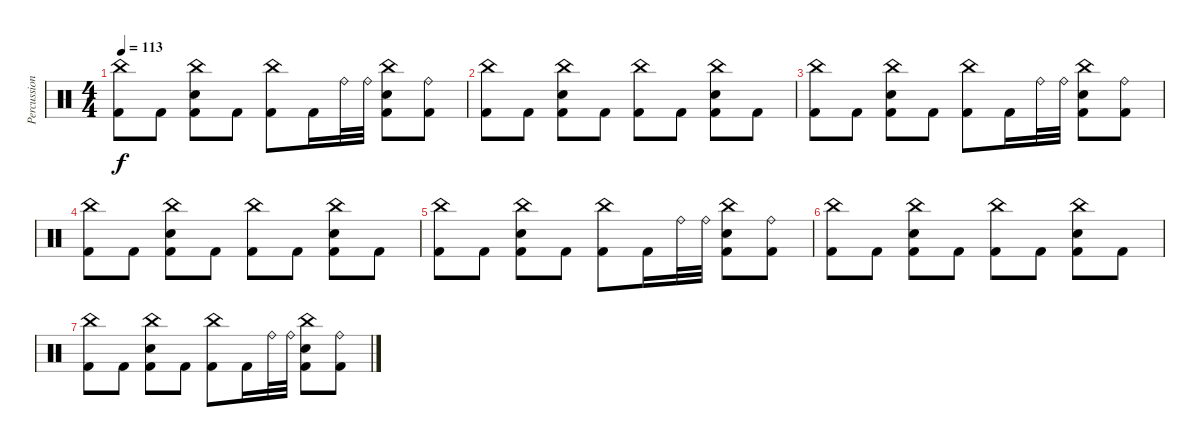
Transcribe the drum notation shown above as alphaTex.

\track ("Percussion" "Percussion") {instrument percussion}
\staff {score}
\articulation defaults
\ts (4 4)
\tempo 113
\clef neutral
\ks c
("China (hit)" "Kick (hit) 2").8{dy f} "Kick (hit) 2".8 ("China (hit)" "Electric Snare (hit)" "Kick (hit) 2").8 "Kick (hit) 2".8 ("China (hit)" "Kick (hit) 2").8 "Kick (hit) 2".16 "Ride (bell)".32 "Ride (bell)".32 ("China (hit)" "Electric Snare (hit)" "Kick (hit) 2").8 ("Ride (bell)" "Kick (hit) 2").8 |
("China (hit)" "Kick (hit) 2").8 "Kick (hit) 2".8 ("China (hit)" "Electric Snare (hit)" "Kick (hit) 2").8 "Kick (hit) 2".8 ("China (hit)" "Kick (hit) 2").8 "Kick (hit) 2".8 ("China (hit)" "Electric Snare (hit)" "Kick (hit) 2").8 "Kick (hit) 2".8 |
("China (hit)" "Kick (hit) 2").8 "Kick (hit) 2".8 ("China (hit)" "Electric Snare (hit)" "Kick (hit) 2").8 "Kick (hit) 2".8 ("China (hit)" "Kick (hit) 2").8 "Kick (hit) 2".16 "Ride (bell)".32 "Ride (bell)".32 ("China (hit)" "Electric Snare (hit)" "Kick (hit) 2").8 ("Ride (bell)" "Kick (hit) 2").8 |
("China (hit)" "Kick (hit) 2").8 "Kick (hit) 2".8 ("China (hit)" "Electric Snare (hit)" "Kick (hit) 2").8 "Kick (hit) 2".8 ("China (hit)" "Kick (hit) 2").8 "Kick (hit) 2".8 ("China (hit)" "Electric Snare (hit)" "Kick (hit) 2").8 "Kick (hit) 2".8 |
("China (hit)" "Kick (hit) 2").8 "Kick (hit) 2".8 ("China (hit)" "Electric Snare (hit)" "Kick (hit) 2").8 "Kick (hit) 2".8 ("China (hit)" "Kick (hit) 2").8 "Kick (hit) 2".16 "Ride (bell)".32 "Ride (bell)".32 ("China (hit)" "Electric Snare (hit)" "Kick (hit) 2").8 ("Ride (bell)" "Kick (hit) 2").8 |
("China (hit)" "Kick (hit) 2").8 "Kick (hit) 2".8 ("China (hit)" "Electric Snare (hit)" "Kick (hit) 2").8 "Kick (hit) 2".8 ("China (hit)" "Kick (hit) 2").8 "Kick (hit) 2".8 ("China (hit)" "Electric Snare (hit)" "Kick (hit) 2").8 "Kick (hit) 2".8 |
("China (hit)" "Kick (hit) 2").8 "Kick (hit) 2".8 ("China (hit)" "Electric Snare (hit)" "Kick (hit) 2").8 "Kick (hit) 2".8 ("China (hit)" "Kick (hit) 2").8 "Kick (hit) 2".16 "Ride (bell)".32 "Ride (bell)".32 ("China (hit)" "Electric Snare (hit)" "Kick (hit) 2").8 ("Ride (bell)" "Kick (hit) 2").8
